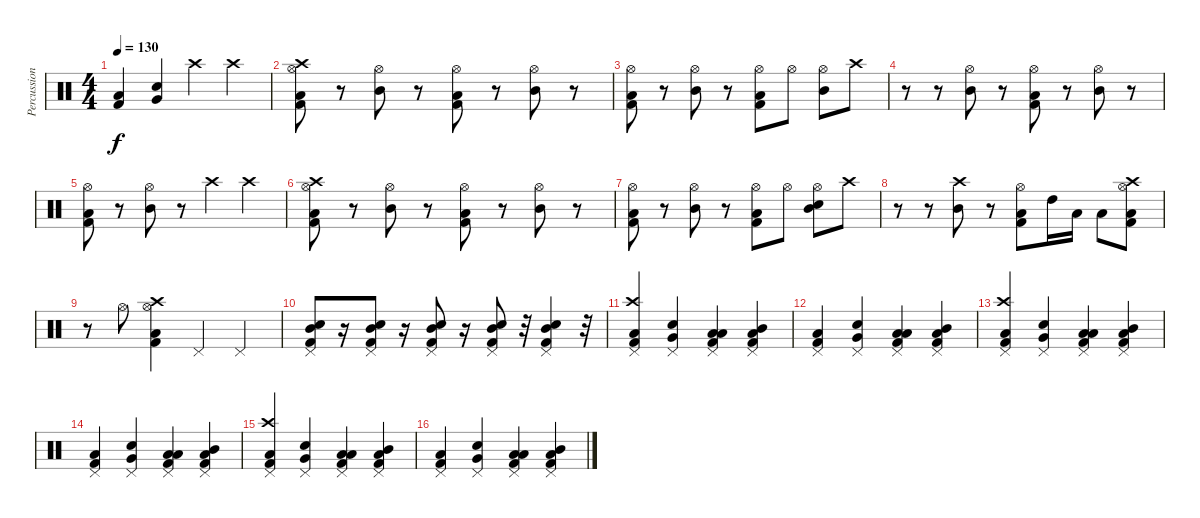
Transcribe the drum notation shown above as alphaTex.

\track ("Percussion" "Percussion") {instrument percussion}
\staff {score}
\articulation defaults
\ts (4 4)
\tempo 130
\clef neutral
\ks c
("Kick (hit) 2" "Low Floor Tom (hit)").4{dy f} ("Very Low Tom (hit)" "Snare (hit) 2").4 "Crash high (hit)".4 "Crash high (hit)".4 |
("Hi-Hat (open)" "Kick (hit) 2" "Crash high (hit)" "Low Floor Tom (hit)").8 r.8 ("Hi-Hat (open)" "Mid Tom (hit)").8 r.8 ("Hi-Hat (open)" "Kick (hit) 2" "Low Floor Tom (hit)").8 r.8 ("Hi-Hat (open)" "Mid Tom (hit)").8 r.8 |
("Hi-Hat (open)" "Kick (hit) 2" "Low Floor Tom (hit)").8 r.8 ("Hi-Hat (open)" "Mid Tom (hit)").8 r.8 ("Hi-Hat (open)" "Kick (hit) 2" "Low Floor Tom (hit)").8 "Hi-Hat (open)".8 ("Hi-Hat (open)" "Mid Tom (hit)").8 "Crash high (hit)".8 |
r.8 r.8 ("Hi-Hat (open)" "Mid Tom (hit)").8 r.8 ("Hi-Hat (open)" "Kick (hit) 2" "Low Floor Tom (hit)").8 r.8 ("Hi-Hat (open)" "Mid Tom (hit)").8 r.8 |
("Hi-Hat (open)" "Kick (hit) 2" "Low Floor Tom (hit)").8 r.8 ("Hi-Hat (open)" "Mid Tom (hit)").8 r.8 "Crash high (hit)".4 "Crash high (hit)".4 |
("Hi-Hat (open)" "Kick (hit) 2" "Crash high (hit)" "Low Floor Tom (hit)").8 r.8 ("Hi-Hat (open)" "Mid Tom (hit)").8 r.8 ("Hi-Hat (open)" "Kick (hit) 2" "Low Floor Tom (hit)").8 r.8 ("Hi-Hat (open)" "Mid Tom (hit)").8 r.8 |
("Hi-Hat (open)" "Kick (hit) 2" "Low Floor Tom (hit)").8 r.8 ("Hi-Hat (open)" "Mid Tom (hit)").8 r.8 ("Hi-Hat (open)" "Kick (hit) 2" "Low Floor Tom (hit)").8 "Hi-Hat (open)".8 ("Hi-Hat (open)" "Mid Tom (hit)" "Electric Snare (hit)").8 "Crash high (hit)".8 |
r.8 r.8 ("Crash high (hit)" "Mid Tom (hit)").8 r.8 ("Hi-Hat (open)" "Kick (hit) 2" "Low Floor Tom (hit)").8 "High Tom (hit)".16 "Low Tom (hit)".16 "Low Floor Tom (hit)".8 ("Hi-Hat (open)" "Kick (hit) 2" "Crash high (hit)" "Low Floor Tom (hit)").8 |
r.8 "Hi-Hat (open)".8 ("Hi-Hat (open)" "Kick (hit) 2" "Crash high (hit)" "Low Floor Tom (hit)").4 "Pedal Hi-Hat (hit)".4 "Pedal Hi-Hat (hit)".4 |
("Pedal Hi-Hat (hit)" "Mid Tom (hit)" "Kick (hit) 2" "Electric Snare (hit)").8{bd 480} r.16 ("Pedal Hi-Hat (hit)" "Mid Tom (hit)" "Kick (hit) 2" "Electric Snare (hit)").8{bd 480} r.16 ("Pedal Hi-Hat (hit)" "Mid Tom (hit)" "Kick (hit) 2" "Electric Snare (hit)").8{bd 480} r.16 ("Pedal Hi-Hat (hit)" "Mid Tom (hit)" "Kick (hit) 2" "Electric Snare (hit)").8{bd 480} r.32 ("Pedal Hi-Hat (hit)" "Mid Tom (hit)" "Kick (hit) 2" "Electric Snare (hit)").4 r.32 |
("Pedal Hi-Hat (hit)" "Crash high (hit)" "Kick (hit) 2" "Low Floor Tom (hit)").4 ("Pedal Hi-Hat (hit)" "Very Low Tom (hit)" "Snare (hit) 2").4 ("Pedal Hi-Hat (hit)" "Low Floor Tom (hit)" "Kick (hit) 2" "Low Tom (hit)").4 ("Pedal Hi-Hat (hit)" "Low Tom (hit)" "Kick (hit) 2" "Mid Tom (hit)").4 |
("Pedal Hi-Hat (hit)" "Kick (hit) 2" "Low Floor Tom (hit)").4 ("Pedal Hi-Hat (hit)" "Very Low Tom (hit)" "Snare (hit) 2").4 ("Pedal Hi-Hat (hit)" "Low Floor Tom (hit)" "Kick (hit) 2" "Low Tom (hit)").4 ("Pedal Hi-Hat (hit)" "Low Tom (hit)" "Kick (hit) 2" "Mid Tom (hit)").4 |
("Pedal Hi-Hat (hit)" "Crash high (hit)" "Kick (hit) 2" "Low Floor Tom (hit)").4 ("Pedal Hi-Hat (hit)" "Very Low Tom (hit)" "Snare (hit) 2").4 ("Pedal Hi-Hat (hit)" "Low Floor Tom (hit)" "Kick (hit) 2" "Low Tom (hit)").4 ("Pedal Hi-Hat (hit)" "Low Tom (hit)" "Kick (hit) 2" "Mid Tom (hit)").4 |
("Pedal Hi-Hat (hit)" "Kick (hit) 2" "Low Floor Tom (hit)").4 ("Pedal Hi-Hat (hit)" "Very Low Tom (hit)" "Snare (hit) 2").4 ("Pedal Hi-Hat (hit)" "Low Floor Tom (hit)" "Kick (hit) 2" "Low Tom (hit)").4 ("Pedal Hi-Hat (hit)" "Low Tom (hit)" "Kick (hit) 2" "Mid Tom (hit)").4 |
("Pedal Hi-Hat (hit)" "Crash high (hit)" "Kick (hit) 2" "Low Floor Tom (hit)").4 ("Pedal Hi-Hat (hit)" "Very Low Tom (hit)" "Snare (hit) 2").4 ("Pedal Hi-Hat (hit)" "Low Floor Tom (hit)" "Kick (hit) 2" "Low Tom (hit)").4 ("Pedal Hi-Hat (hit)" "Low Tom (hit)" "Kick (hit) 2" "Mid Tom (hit)").4 |
("Pedal Hi-Hat (hit)" "Kick (hit) 2" "Low Floor Tom (hit)").4 ("Pedal Hi-Hat (hit)" "Very Low Tom (hit)" "Snare (hit) 2").4 ("Pedal Hi-Hat (hit)" "Low Floor Tom (hit)" "Kick (hit) 2" "Low Tom (hit)").4 ("Pedal Hi-Hat (hit)" "Low Tom (hit)" "Kick (hit) 2" "Mid Tom (hit)").4
